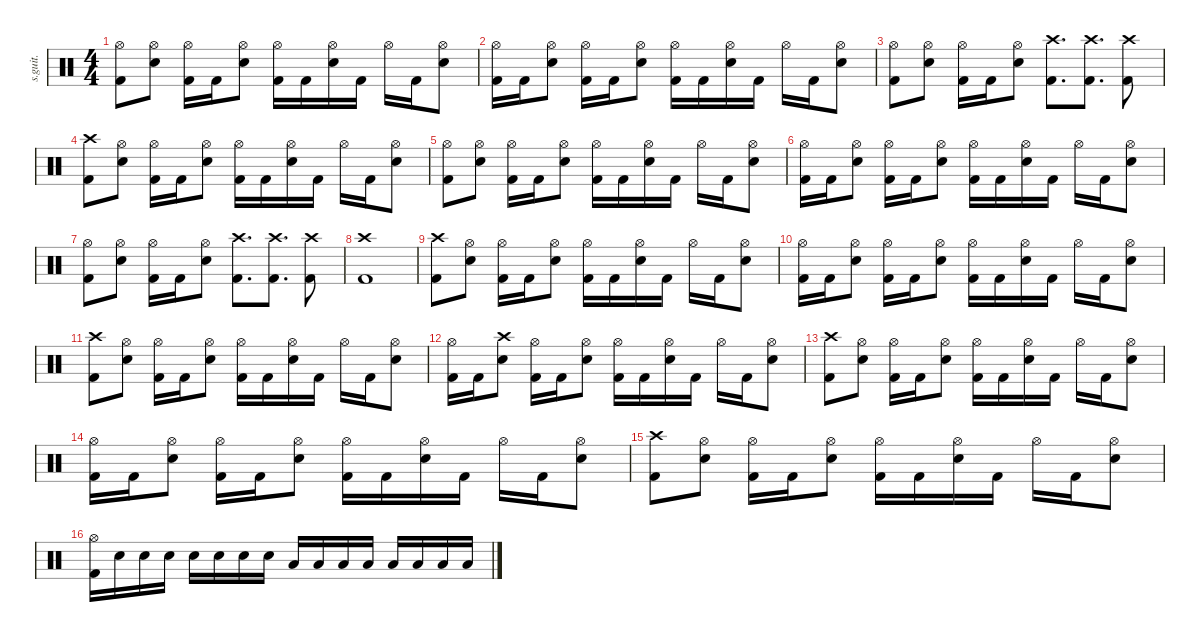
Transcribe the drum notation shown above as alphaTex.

\defaultSystemsLayout 4
\hideDynamics
\bracketExtendMode nobrackets
\track ("" "s.guit.") {instrument percussion}
\staff {score}
\articulation defaults
\ts (4 4)
\tempo (153 hide)
\clef neutral
\ks c
("Hi-Hat (open)" "Kick (hit) 2").8{dy f} ("Hi-Hat (open)" "Snare (hit) 2").8 ("Hi-Hat (open)" "Kick (hit) 2").16 "Kick (hit) 2".16 ("Hi-Hat (open)" "Snare (hit) 2").8 ("Hi-Hat (open)" "Kick (hit) 2").16 "Kick (hit) 2".16 ("Hi-Hat (open)" "Snare (hit) 2").16 "Kick (hit) 2".16 "Hi-Hat (open)".16 "Kick (hit) 2".16 ("Hi-Hat (open)" "Snare (hit) 2").8 |
("Hi-Hat (open)" "Kick (hit) 2").16 "Kick (hit) 2".16 ("Hi-Hat (open)" "Snare (hit) 2").8 ("Hi-Hat (open)" "Kick (hit) 2").16 "Kick (hit) 2".16 ("Hi-Hat (open)" "Snare (hit) 2").8 ("Hi-Hat (open)" "Kick (hit) 2").16 "Kick (hit) 2".16 ("Hi-Hat (open)" "Snare (hit) 2").16 "Kick (hit) 2".16 "Hi-Hat (open)".16 "Kick (hit) 2".16 ("Hi-Hat (open)" "Snare (hit) 2").8 |
("Hi-Hat (open)" "Kick (hit) 2").8 ("Hi-Hat (open)" "Snare (hit) 2").8 ("Hi-Hat (open)" "Kick (hit) 2").16 "Kick (hit) 2".16 ("Hi-Hat (open)" "Snare (hit) 2").8 ("Crash high (hit)" "Kick (hit) 2").8{d} ("Crash high (hit)" "Kick (hit) 2").8{d} ("Crash high (hit)" "Kick (hit) 2").8 |
("Crash high (hit)" "Kick (hit) 2").8 ("Hi-Hat (open)" "Snare (hit) 2").8 ("Hi-Hat (open)" "Kick (hit) 2").16 "Kick (hit) 2".16 ("Hi-Hat (open)" "Snare (hit) 2").8 ("Hi-Hat (open)" "Kick (hit) 2").16 "Kick (hit) 2".16 ("Hi-Hat (open)" "Snare (hit) 2").16 "Kick (hit) 2".16 "Hi-Hat (open)".16 "Kick (hit) 2".16 ("Hi-Hat (open)" "Snare (hit) 2").8 |
("Hi-Hat (open)" "Kick (hit) 2").8 ("Hi-Hat (open)" "Snare (hit) 2").8 ("Hi-Hat (open)" "Kick (hit) 2").16 "Kick (hit) 2".16 ("Hi-Hat (open)" "Snare (hit) 2").8 ("Hi-Hat (open)" "Kick (hit) 2").16 "Kick (hit) 2".16 ("Hi-Hat (open)" "Snare (hit) 2").16 "Kick (hit) 2".16 "Hi-Hat (open)".16 "Kick (hit) 2".16 ("Hi-Hat (open)" "Snare (hit) 2").8 |
("Hi-Hat (open)" "Kick (hit) 2").16 "Kick (hit) 2".16 ("Hi-Hat (open)" "Snare (hit) 2").8 ("Hi-Hat (open)" "Kick (hit) 2").16 "Kick (hit) 2".16 ("Hi-Hat (open)" "Snare (hit) 2").8 ("Hi-Hat (open)" "Kick (hit) 2").16 "Kick (hit) 2".16 ("Hi-Hat (open)" "Snare (hit) 2").16 "Kick (hit) 2".16 "Hi-Hat (open)".16 "Kick (hit) 2".16 ("Hi-Hat (open)" "Snare (hit) 2").8 |
("Hi-Hat (open)" "Kick (hit) 2").8 ("Hi-Hat (open)" "Snare (hit) 2").8 ("Hi-Hat (open)" "Kick (hit) 2").16 "Kick (hit) 2".16 ("Hi-Hat (open)" "Snare (hit) 2").8 ("Crash high (hit)" "Kick (hit) 2").8{d} ("Crash high (hit)" "Kick (hit) 2").8{d} ("Crash high (hit)" "Kick (hit) 2").8 |
("Crash high (hit)" "Kick (hit) 2").1 |
("Crash high (hit)" "Kick (hit) 2").8 ("Hi-Hat (open)" "Snare (hit) 2").8 ("Hi-Hat (open)" "Kick (hit) 2").16 "Kick (hit) 2".16 ("Hi-Hat (open)" "Snare (hit) 2").8 ("Hi-Hat (open)" "Kick (hit) 2").16 "Kick (hit) 2".16 ("Hi-Hat (open)" "Snare (hit) 2").16 "Kick (hit) 2".16 "Hi-Hat (open)".16 "Kick (hit) 2".16 ("Hi-Hat (open)" "Snare (hit) 2").8 |
("Hi-Hat (open)" "Kick (hit) 2").16 "Kick (hit) 2".16 ("Hi-Hat (open)" "Snare (hit) 2").8 ("Hi-Hat (open)" "Kick (hit) 2").16 "Kick (hit) 2".16 ("Hi-Hat (open)" "Snare (hit) 2").8 ("Hi-Hat (open)" "Kick (hit) 2").16 "Kick (hit) 2".16 ("Hi-Hat (open)" "Snare (hit) 2").16 "Kick (hit) 2".16 "Hi-Hat (open)".16 "Kick (hit) 2".16 ("Hi-Hat (open)" "Snare (hit) 2").8 |
("Crash high (hit)" "Kick (hit) 2").8 ("Hi-Hat (open)" "Snare (hit) 2").8 ("Hi-Hat (open)" "Kick (hit) 2").16 "Kick (hit) 2".16 ("Hi-Hat (open)" "Snare (hit) 2").8 ("Hi-Hat (open)" "Kick (hit) 2").16 "Kick (hit) 2".16 ("Hi-Hat (open)" "Snare (hit) 2").16 "Kick (hit) 2".16 "Hi-Hat (open)".16 "Kick (hit) 2".16 ("Hi-Hat (open)" "Snare (hit) 2").8 |
("Hi-Hat (open)" "Kick (hit) 2").16 "Kick (hit) 2".16 ("Crash high (hit)" "Snare (hit) 2").8 ("Hi-Hat (open)" "Kick (hit) 2").16 "Kick (hit) 2".16 ("Hi-Hat (open)" "Snare (hit) 2").8 ("Hi-Hat (open)" "Kick (hit) 2").16 "Kick (hit) 2".16 ("Hi-Hat (open)" "Snare (hit) 2").16 "Kick (hit) 2".16 "Hi-Hat (open)".16 "Kick (hit) 2".16 ("Hi-Hat (open)" "Snare (hit) 2").8 |
("Crash high (hit)" "Kick (hit) 2").8 ("Hi-Hat (open)" "Snare (hit) 2").8 ("Hi-Hat (open)" "Kick (hit) 2").16 "Kick (hit) 2".16 ("Hi-Hat (open)" "Snare (hit) 2").8 ("Hi-Hat (open)" "Kick (hit) 2").16 "Kick (hit) 2".16 ("Hi-Hat (open)" "Snare (hit) 2").16 "Kick (hit) 2".16 "Hi-Hat (open)".16 "Kick (hit) 2".16 ("Hi-Hat (open)" "Snare (hit) 2").8 |
("Hi-Hat (open)" "Kick (hit) 2").16 "Kick (hit) 2".16 ("Hi-Hat (open)" "Snare (hit) 2").8 ("Hi-Hat (open)" "Kick (hit) 2").16 "Kick (hit) 2".16 ("Hi-Hat (open)" "Snare (hit) 2").8 ("Hi-Hat (open)" "Kick (hit) 2").16 "Kick (hit) 2".16 ("Hi-Hat (open)" "Snare (hit) 2").16 "Kick (hit) 2".16 "Hi-Hat (open)".16 "Kick (hit) 2".16 ("Hi-Hat (open)" "Snare (hit) 2").8 |
("Crash high (hit)" "Kick (hit) 2").8 ("Hi-Hat (open)" "Snare (hit) 2").8 ("Hi-Hat (open)" "Kick (hit) 2").16 "Kick (hit) 2".16 ("Hi-Hat (open)" "Snare (hit) 2").8 ("Hi-Hat (open)" "Kick (hit) 2").16 "Kick (hit) 2".16 ("Hi-Hat (open)" "Snare (hit) 2").16 "Kick (hit) 2".16 "Hi-Hat (open)".16 "Kick (hit) 2".16 ("Hi-Hat (open)" "Snare (hit) 2").8 |
("Hi-Hat (open)" "Kick (hit) 2").16 "Snare (hit) 2".16 "Snare (hit) 2".16 "Snare (hit) 2".16 "Snare (hit) 2".16 "Snare (hit) 2".16 "Snare (hit) 2".16 "Snare (hit) 2".16 "Low Tom (hit)".16 "Low Tom (hit)".16 "Low Tom (hit)".16 "Low Tom (hit)".16 "Low Tom (hit)".16 "Low Tom (hit)".16 "Low Tom (hit)".16 "Low Tom (hit)".16
